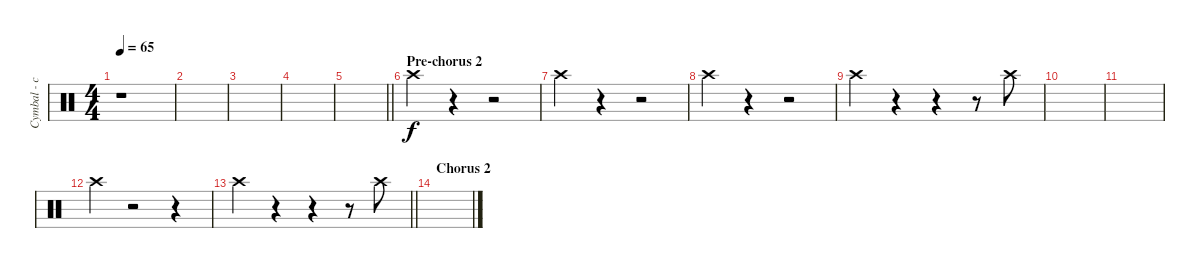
\track ("Cymbal - crash - center" "Cymbal - c") {instrument percussion}
\staff {score}
\articulation defaults
\ts (4 4)
\tempo 65
\clef neutral
\ks c
r.1{dy f} |
|
|
|
\barLineRight lightlight
|
\section ("" "Pre-chorus 2")
"Crash high (hit)".4 r.4 r.2 |
"Crash high (hit)".4 r.4 r.2 |
"Crash high (hit)".4 r.4 r.2 |
"Crash high (hit)".4 r.4 r.4 r.8 "Crash high (hit)".8 |
|
|
"Crash high (hit)".4 r.2 r.4 |
\barLineRight lightlight "Crash high (hit)".4
r.4 r.4 r.8 "Crash high (hit)".8 |
\section ("" "Chorus 2")
